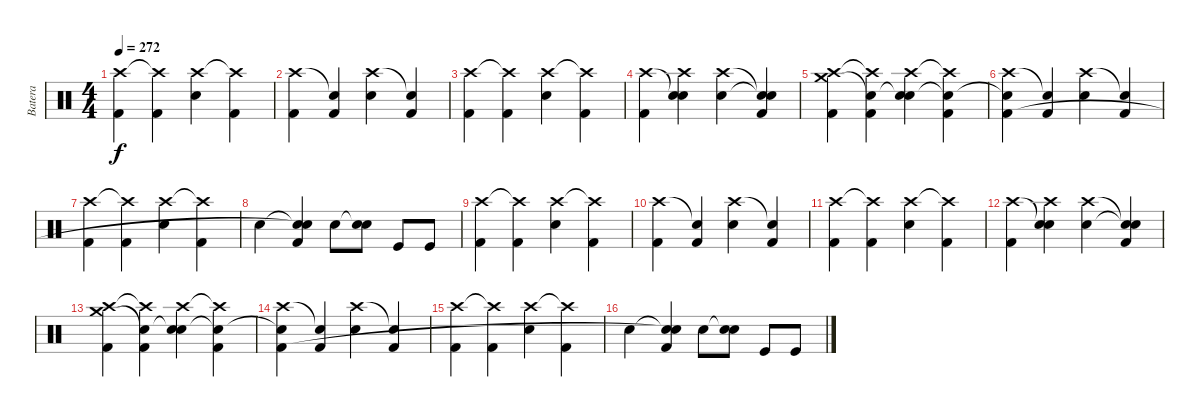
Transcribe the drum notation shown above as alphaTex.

\track ("Batera" "Batera") {instrument percussion}
\staff {score}
\articulation defaults
\ts (4 4)
\tempo 272
\clef neutral
\ks c
("Crash high (hit)" "Kick (hit) 2").4{dy f} ("Crash high (hit)"{t} "Kick (hit) 2").4 ("Crash high (hit)" "Electric Snare (hit)").4 ("Crash high (hit)"{t} "Kick (hit) 2").4 |
("Crash high (hit)" "Kick (hit) 2").4 ("Snare (hit)"{t} "Kick (hit) 2").4 ("Crash high (hit)" "Electric Snare (hit)").4 ("Snare (hit)"{t} "Kick (hit) 2").4 |
("Crash high (hit)" "Kick (hit) 2").4 ("Crash high (hit)"{t} "Kick (hit) 2").4 ("Crash high (hit)" "Electric Snare (hit)").4 ("Crash high (hit)"{t} "Kick (hit) 2").4 |
("Crash high (hit)" "Kick (hit) 2").4 ("Snare (hit)"{t} "Crash high (hit)" "Electric Snare (hit)").4 ("Crash high (hit)" "Electric Snare (hit)").4 ("Snare (hit)"{t} "Snare (hit)"{t} "Kick (hit) 2").4 |
("Crash high (hit)" "Crash medium (hit)" "Kick (hit) 2").4 ("Crash high (hit)"{t} "Snare (hit)"{t} "Kick (hit) 2").4 ("Crash high (hit)" "Snare (hit)"{t} "Electric Snare (hit)").4 ("Crash high (hit)"{t} "Snare (hit)"{t} "Kick (hit) 2").4 |
("Crash high (hit)" "Snare (hit)"{t} "Kick (hit) 2").4 ("Snare (hit)"{t} "Kick (hit) 2").4 ("Crash high (hit)" "Electric Snare (hit)").4 ("Snare (hit)"{t} "Kick (hit) 2").4 |
("Crash high (hit)" "Kick (hit) 2").4 ("Crash high (hit)"{t} "Kick (hit) 2").4 ("Crash high (hit)" "Electric Snare (hit)").4 ("Crash high (hit)"{t} "Kick (hit) 2").4 |
"Electric Snare (hit)".4 ("Snare (hit)"{t} "Kick (hit) 2" "Snare (hit)"{t}).4 "Electric Snare (hit)".8 ("Snare (hit)"{t} "Electric Snare (hit)").8 "Kick (hit)".8 "Kick (hit)".8 |
("Crash high (hit)" "Kick (hit) 2").4 ("Crash high (hit)"{t} "Kick (hit) 2").4 ("Crash high (hit)" "Electric Snare (hit)").4 ("Crash high (hit)"{t} "Kick (hit) 2").4 |
("Crash high (hit)" "Kick (hit) 2").4 ("Snare (hit)"{t} "Kick (hit) 2").4 ("Crash high (hit)" "Electric Snare (hit)").4 ("Snare (hit)"{t} "Kick (hit) 2").4 |
("Crash high (hit)" "Kick (hit) 2").4 ("Crash high (hit)"{t} "Kick (hit) 2").4 ("Crash high (hit)" "Electric Snare (hit)").4 ("Crash high (hit)"{t} "Kick (hit) 2").4 |
("Crash high (hit)" "Kick (hit) 2").4 ("Snare (hit)"{t} "Crash high (hit)" "Electric Snare (hit)").4 ("Crash high (hit)" "Electric Snare (hit)").4 ("Snare (hit)"{t} "Snare (hit)"{t} "Kick (hit) 2").4 |
("Crash high (hit)" "Crash medium (hit)" "Kick (hit) 2").4 ("Crash high (hit)"{t} "Snare (hit)"{t} "Kick (hit) 2").4 ("Crash high (hit)" "Snare (hit)"{t} "Electric Snare (hit)").4 ("Crash high (hit)"{t} "Snare (hit)"{t} "Kick (hit) 2").4 |
("Crash high (hit)" "Snare (hit)"{t} "Kick (hit) 2").4 ("Snare (hit)"{t} "Kick (hit) 2").4 ("Crash high (hit)" "Electric Snare (hit)").4 ("Snare (hit)"{t} "Kick (hit) 2").4 |
("Crash high (hit)" "Kick (hit) 2").4 ("Crash high (hit)"{t} "Kick (hit) 2").4 ("Crash high (hit)" "Electric Snare (hit)").4 ("Crash high (hit)"{t} "Kick (hit) 2").4 |
"Electric Snare (hit)".4 ("Snare (hit)"{t} "Kick (hit) 2" "Snare (hit)"{t}).4 "Electric Snare (hit)".8 ("Snare (hit)"{t} "Electric Snare (hit)").8 "Kick (hit)".8 "Kick (hit)".8
